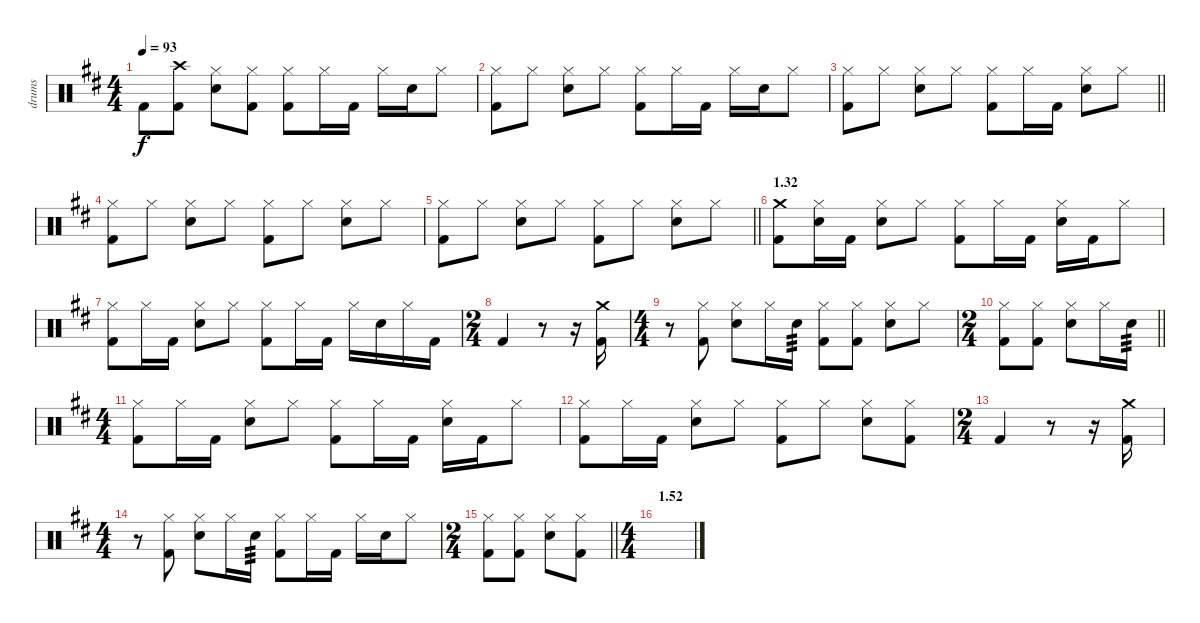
\track ("drums" "drums") {instrument percussion}
\staff {score}
\articulation defaults
\ts (4 4)
\tempo 93
\clef neutral
\ks d "Kick (hit) 2".8{dy f}
("Crash high (hit)" "Kick (hit) 2").8 ("Hi-Hat (closed)" "Electric Snare (hit)").8 ("Hi-Hat (closed)" "Kick (hit) 2").8 ("Hi-Hat (closed)" "Kick (hit) 2").8 "Hi-Hat (closed)".16 "Kick (hit) 2".16 "Hi-Hat (closed)".16 "Electric Snare (hit)".16 "Hi-Hat (closed)".8 |
("Hi-Hat (closed)" "Kick (hit) 2").8 "Hi-Hat (closed)".8 ("Hi-Hat (closed)" "Electric Snare (hit)").8 "Hi-Hat (closed)".8 ("Hi-Hat (closed)" "Kick (hit) 2").8 "Hi-Hat (closed)".16 "Kick (hit) 2".16 "Hi-Hat (closed)".16 "Electric Snare (hit)".16 "Hi-Hat (closed)".8 |
\barLineRight lightlight
("Hi-Hat (closed)" "Kick (hit) 2").8 "Hi-Hat (closed)".8 ("Hi-Hat (closed)" "Electric Snare (hit)").8 "Hi-Hat (closed)".8 ("Hi-Hat (closed)" "Kick (hit) 2").8 "Hi-Hat (closed)".16 "Kick (hit) 2".16 ("Hi-Hat (closed)" "Electric Snare (hit)").8 "Hi-Hat (closed)".8 |
("Hi-Hat (closed)" "Kick (hit) 2").8 "Hi-Hat (closed)".8 ("Hi-Hat (closed)" "Electric Snare (hit)").8 "Hi-Hat (closed)".8 ("Hi-Hat (closed)" "Kick (hit) 2").8 "Hi-Hat (closed)".8 ("Hi-Hat (closed)" "Electric Snare (hit)").8 "Hi-Hat (closed)".8 |
\barLineRight lightlight
("Hi-Hat (closed)" "Kick (hit) 2").8 "Hi-Hat (closed)".8 ("Hi-Hat (closed)" "Electric Snare (hit)").8 "Hi-Hat (closed)".8 ("Hi-Hat (closed)" "Kick (hit) 2").8 "Hi-Hat (closed)".8 ("Hi-Hat (closed)" "Electric Snare (hit)").8 "Hi-Hat (closed)".8 |
\section ("" "1.32")
("Crash medium (hit)" "Kick (hit) 2").8 ("Hi-Hat (closed)" "Electric Snare (hit)").16 "Kick (hit) 2".16 ("Hi-Hat (closed)" "Electric Snare (hit)").8 "Hi-Hat (closed)".8 ("Hi-Hat (closed)" "Kick (hit) 2").8 "Hi-Hat (closed)".16 "Kick (hit) 2".16 ("Hi-Hat (closed)" "Electric Snare (hit)").16 "Kick (hit) 2".16 "Hi-Hat (closed)".8 |
("Hi-Hat (closed)" "Kick (hit) 2").8 "Hi-Hat (closed)".16 "Kick (hit) 2".16 ("Hi-Hat (closed)" "Electric Snare (hit)").8 "Hi-Hat (closed)".8 ("Hi-Hat (closed)" "Kick (hit) 2").8 "Hi-Hat (closed)".16 "Kick (hit) 2".16 "Hi-Hat (closed)".16 "Electric Snare (hit)".16 "Hi-Hat (closed)".16 "Kick (hit) 2".16 |
\ts (2 4)
"Kick (hit) 2".4 r.8 r.16 ("Crash medium (hit)" "Kick (hit) 2").16 |
\ts (4 4)
r.8 ("Hi-Hat (closed)" "Kick (hit) 2").8 ("Hi-Hat (closed)" "Electric Snare (hit)").8 "Hi-Hat (closed)".16 "Electric Snare (hit)".16{tp 3} ("Hi-Hat (closed)" "Kick (hit) 2").8 ("Hi-Hat (closed)" "Kick (hit) 2").8 ("Hi-Hat (closed)" "Electric Snare (hit)").8 "Hi-Hat (closed)".8 |
\ts (2 4)
\barLineRight lightlight
("Hi-Hat (closed)" "Kick (hit) 2").8 ("Hi-Hat (closed)" "Kick (hit) 2").8 ("Hi-Hat (closed)" "Electric Snare (hit)").8 "Hi-Hat (closed)".16 "Electric Snare (hit)".16{tp 3} |
\ts (4 4)
("Hi-Hat (closed)" "Kick (hit) 2").8 "Hi-Hat (closed)".16 "Kick (hit) 2".16 ("Hi-Hat (closed)" "Electric Snare (hit)").8 "Hi-Hat (closed)".8 ("Hi-Hat (closed)" "Kick (hit) 2").8 "Hi-Hat (closed)".16 "Kick (hit) 2".16 ("Hi-Hat (closed)" "Electric Snare (hit)").16 "Kick (hit) 2".16 "Hi-Hat (closed)".8 |
("Hi-Hat (closed)" "Kick (hit) 2").8 "Hi-Hat (closed)".16 "Kick (hit) 2".16 ("Hi-Hat (closed)" "Electric Snare (hit)").8 "Hi-Hat (closed)".8 ("Hi-Hat (closed)" "Kick (hit) 2").8 "Hi-Hat (closed)".8 ("Hi-Hat (closed)" "Electric Snare (hit)").8 ("Hi-Hat (closed)" "Kick (hit) 2").8 |
\ts (2 4)
"Kick (hit) 2".4 r.8 r.16 ("Crash medium (hit)" "Kick (hit) 2").16 |
\ts (4 4)
r.8 ("Hi-Hat (closed)" "Kick (hit) 2").8 ("Hi-Hat (closed)" "Electric Snare (hit)").8 "Hi-Hat (closed)".16 "Electric Snare (hit)".16{tp 3} ("Hi-Hat (closed)" "Kick (hit) 2").8 "Hi-Hat (closed)".16 "Kick (hit) 2".16 "Hi-Hat (closed)".16 "Electric Snare (hit)".16 "Hi-Hat (closed)".8 |
\ts (2 4)
\barLineRight lightlight
("Hi-Hat (closed)" "Kick (hit) 2").8 ("Hi-Hat (closed)" "Kick (hit) 2").8 ("Hi-Hat (closed)" "Electric Snare (hit)").8 ("Hi-Hat (closed)" "Kick (hit) 2").8 |
\ts (4 4)
\section ("" "1.52")
